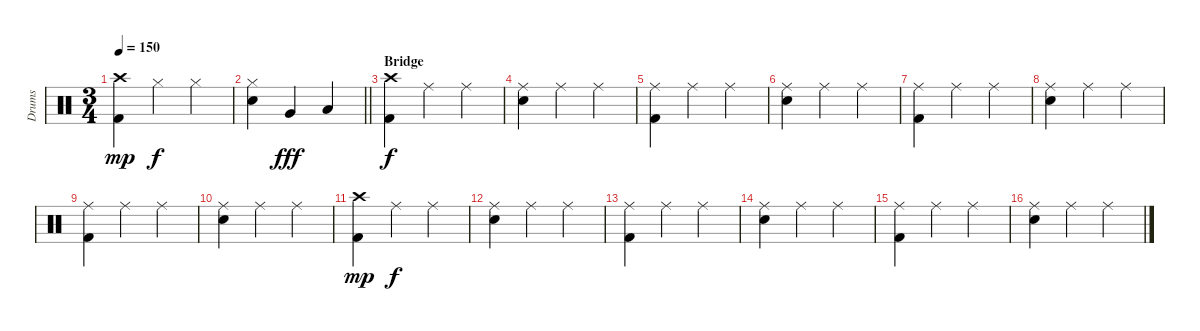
\track ("Drums" "Drums") {instrument percussion}
\staff {score}
\articulation defaults
\ts (3 4)
\tempo 150
\clef neutral
\ks c
("Crash high (hit)" "Kick (hit) 2").4{dy mp} "Hi-Hat (closed)".4{dy f} "Hi-Hat (closed)".4 |
\barLineRight lightlight
("Hi-Hat (closed)" "Electric Snare (hit)").4 "Very Low Tom (hit)".4{dy fff} "Low Floor Tom (hit)".4 |
\section ("" "Bridge")
("Crash high (hit)" "Kick (hit) 2").4{dy f} "Ride (middle)".4 "Ride (middle)".4 |
("Ride (middle)" "Electric Snare (hit)").4 "Ride (middle)".4 "Ride (middle)".4 |
("Ride (middle)" "Kick (hit) 2").4 "Ride (middle)".4 "Ride (middle)".4 |
("Ride (middle)" "Electric Snare (hit)").4 "Ride (middle)".4 "Ride (middle)".4 |
("Ride (middle)" "Kick (hit) 2").4 "Ride (middle)".4 "Ride (middle)".4 |
("Ride (middle)" "Electric Snare (hit)").4 "Ride (middle)".4 "Ride (middle)".4 |
("Ride (middle)" "Kick (hit) 2").4 "Ride (middle)".4 "Ride (middle)".4 |
("Ride (middle)" "Electric Snare (hit)").4 "Ride (middle)".4 "Ride (middle)".4 |
("Crash high (hit)" "Kick (hit) 2").4{dy mp} "Ride (middle)".4{dy f} "Ride (middle)".4 |
("Ride (middle)" "Electric Snare (hit)").4 "Ride (middle)".4 "Ride (middle)".4 |
("Ride (middle)" "Kick (hit) 2").4 "Ride (middle)".4 "Ride (middle)".4 |
("Ride (middle)" "Electric Snare (hit)").4 "Ride (middle)".4 "Ride (middle)".4 |
("Ride (middle)" "Kick (hit) 2").4 "Ride (middle)".4 "Ride (middle)".4 |
("Ride (middle)" "Electric Snare (hit)").4 "Ride (middle)".4 "Ride (middle)".4
